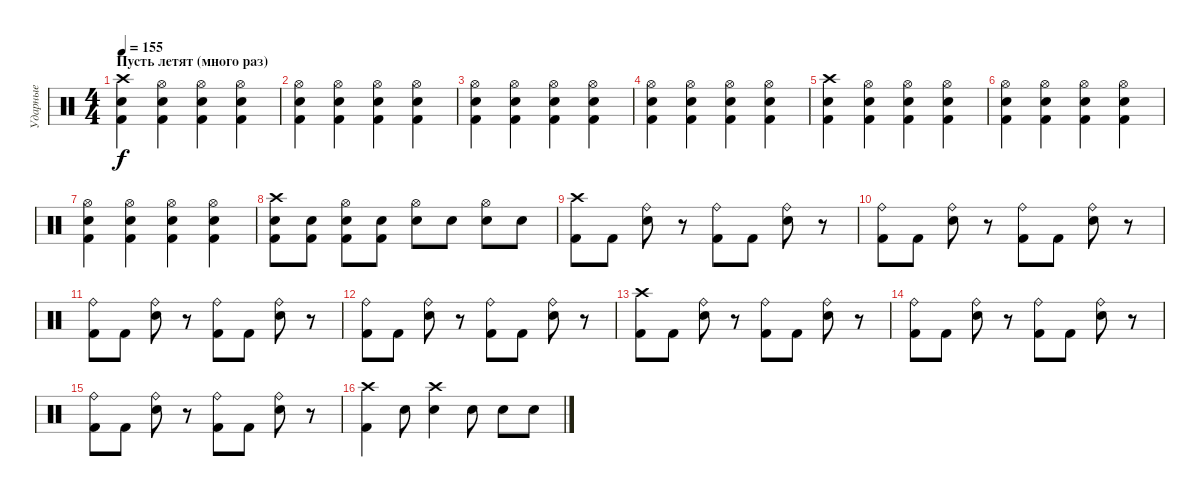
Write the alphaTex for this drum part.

\track ("Ударные" "Ударные") {instrument percussion}
\staff {score}
\articulation defaults
\ts (4 4)
\section ("" "Пусть летят (много раз)")
\tempo 155
\clef neutral
\ks c
("Crash high (hit)" "Kick (hit) 2" "Snare (hit) 2").4{dy f} ("Hi-Hat (open)" "Kick (hit) 2" "Snare (hit) 2").4 ("Hi-Hat (open)" "Kick (hit) 2" "Snare (hit) 2").4 ("Hi-Hat (open)" "Kick (hit) 2" "Snare (hit) 2").4 |
("Hi-Hat (open)" "Kick (hit) 2" "Snare (hit) 2").4 ("Hi-Hat (open)" "Snare (hit) 2" "Kick (hit) 2").4 ("Hi-Hat (open)" "Kick (hit) 2" "Snare (hit) 2").4 ("Hi-Hat (open)" "Kick (hit) 2" "Snare (hit) 2").4 |
("Hi-Hat (open)" "Kick (hit) 2" "Snare (hit) 2").4 ("Hi-Hat (open)" "Snare (hit) 2" "Kick (hit) 2").4 ("Hi-Hat (open)" "Kick (hit) 2" "Snare (hit) 2").4 ("Hi-Hat (open)" "Kick (hit) 2" "Snare (hit) 2").4 |
("Hi-Hat (open)" "Kick (hit) 2" "Snare (hit) 2").4 ("Hi-Hat (open)" "Snare (hit) 2" "Kick (hit) 2").4 ("Hi-Hat (open)" "Kick (hit) 2" "Snare (hit) 2").4 ("Hi-Hat (open)" "Kick (hit) 2" "Snare (hit) 2").4 |
("Crash high (hit)" "Kick (hit) 2" "Snare (hit) 2").4 ("Hi-Hat (open)" "Kick (hit) 2" "Snare (hit) 2").4 ("Hi-Hat (open)" "Kick (hit) 2" "Snare (hit) 2").4 ("Hi-Hat (open)" "Kick (hit) 2" "Snare (hit) 2").4 |
("Hi-Hat (open)" "Kick (hit) 2" "Snare (hit) 2").4 ("Hi-Hat (open)" "Snare (hit) 2" "Kick (hit) 2").4 ("Hi-Hat (open)" "Kick (hit) 2" "Snare (hit) 2").4 ("Hi-Hat (open)" "Kick (hit) 2" "Snare (hit) 2").4 |
("Hi-Hat (open)" "Kick (hit) 2" "Snare (hit) 2").4 ("Hi-Hat (open)" "Snare (hit) 2" "Kick (hit) 2").4 ("Hi-Hat (open)" "Kick (hit) 2" "Snare (hit) 2").4 ("Hi-Hat (open)" "Kick (hit) 2" "Snare (hit) 2").4 |
("Crash high (hit)" "Kick (hit) 2" "Snare (hit)").8 ("Snare (hit) 2" "Kick (hit) 2").8 ("Hi-Hat (open)" "Kick (hit) 2" "Snare (hit) 2").8 ("Kick (hit) 2" "Snare (hit) 2").8 ("Hi-Hat (open)" "Snare (hit) 2").8 "Snare (hit) 2".8 ("Hi-Hat (open)" "Snare (hit) 2").8 "Snare (hit) 2".8 |
("Crash high (hit)" "Kick (hit) 2").8 "Kick (hit) 2".8 ("Ride (bell)" "Snare (hit) 2").8 r.8 ("Ride (bell)" "Kick (hit) 2").8 "Kick (hit) 2".8 ("Ride (bell)" "Snare (hit) 2").8 r.8 |
("Ride (bell)" "Kick (hit) 2").8 "Kick (hit) 2".8 ("Ride (bell)" "Snare (hit) 2").8 r.8 ("Ride (bell)" "Kick (hit) 2").8 "Kick (hit) 2".8 ("Ride (bell)" "Snare (hit) 2").8 r.8 |
("Ride (bell)" "Kick (hit) 2").8 "Kick (hit) 2".8 ("Ride (bell)" "Snare (hit) 2").8 r.8 ("Ride (bell)" "Kick (hit) 2").8 "Kick (hit) 2".8 ("Ride (bell)" "Snare (hit) 2").8 r.8 |
("Ride (bell)" "Kick (hit) 2").8 "Kick (hit) 2".8 ("Ride (bell)" "Snare (hit) 2").8 r.8 ("Ride (bell)" "Kick (hit) 2").8 "Kick (hit) 2".8 ("Ride (bell)" "Snare (hit) 2").8 r.8 |
("Crash high (hit)" "Kick (hit) 2").8 "Kick (hit) 2".8 ("Ride (bell)" "Snare (hit) 2").8 r.8 ("Ride (bell)" "Kick (hit) 2").8 "Kick (hit) 2".8 ("Ride (bell)" "Snare (hit) 2").8 r.8 |
("Ride (bell)" "Kick (hit) 2").8 "Kick (hit) 2".8 ("Ride (bell)" "Snare (hit) 2").8 r.8 ("Ride (bell)" "Kick (hit) 2").8 "Kick (hit) 2".8 ("Ride (bell)" "Snare (hit) 2").8 r.8 |
("Ride (bell)" "Kick (hit) 2").8 "Kick (hit) 2".8 ("Ride (bell)" "Snare (hit) 2").8 r.8 ("Ride (bell)" "Kick (hit) 2").8 "Kick (hit) 2".8 ("Ride (bell)" "Snare (hit) 2").8 r.8 |
("Crash high (hit)" "Kick (hit) 2").4 "Snare (hit) 2".8 ("Crash high (hit)" "Snare (hit) 2").4 "Snare (hit) 2".8 "Snare (hit) 2".8 "Snare (hit) 2".8
